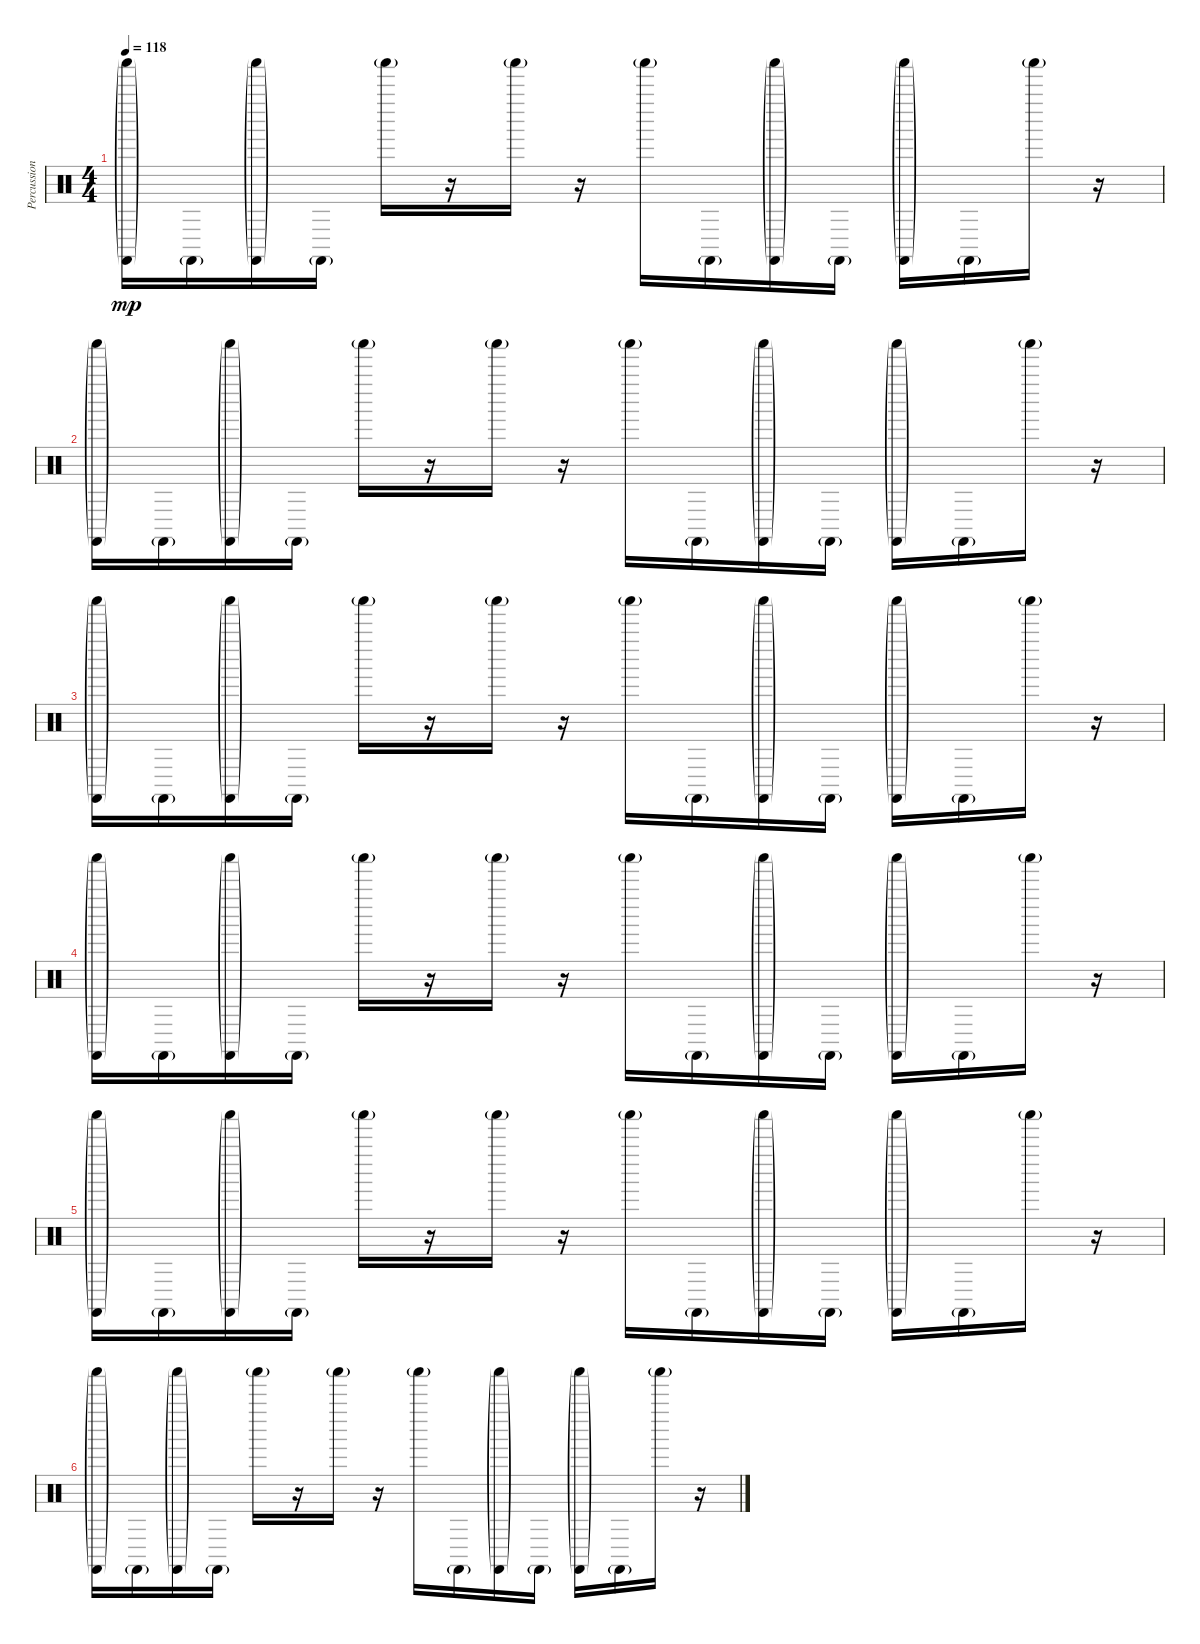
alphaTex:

\track ("Percussion" "Percussion") {instrument percussion}
\staff {score}
\articulation defaults
\ts (4 4)
\tempo 118
\clef neutral
\ks c
("Castanets (hit)"{g} "Shaker (hit)"{g}).16{dy mp} "Castanets (hit)"{g}.16 ("Castanets (hit)"{g} "Shaker (hit)"{g}).16 "Castanets (hit)"{g}.16 "Shaker (hit)"{g}.16 r.16 "Shaker (hit)"{g}.16 r.16 "Shaker (hit)"{g}.16 "Castanets (hit)"{g}.16 ("Castanets (hit)"{g} "Shaker (hit)"{g}).16 "Castanets (hit)"{g}.16 ("Castanets (hit)"{g} "Shaker (hit)"{g}).16 "Castanets (hit)"{g}.16 "Shaker (hit)"{g}.16 r.16 |
("Castanets (hit)"{g} "Shaker (hit)"{g}).16 "Castanets (hit)"{g}.16 ("Castanets (hit)"{g} "Shaker (hit)"{g}).16 "Castanets (hit)"{g}.16 "Shaker (hit)"{g}.16 r.16 "Shaker (hit)"{g}.16 r.16 "Shaker (hit)"{g}.16 "Castanets (hit)"{g}.16 ("Castanets (hit)"{g} "Shaker (hit)"{g}).16 "Castanets (hit)"{g}.16 ("Castanets (hit)"{g} "Shaker (hit)"{g}).16 "Castanets (hit)"{g}.16 "Shaker (hit)"{g}.16 r.16 |
("Castanets (hit)"{g} "Shaker (hit)"{g}).16 "Castanets (hit)"{g}.16 ("Castanets (hit)"{g} "Shaker (hit)"{g}).16 "Castanets (hit)"{g}.16 "Shaker (hit)"{g}.16 r.16 "Shaker (hit)"{g}.16 r.16 "Shaker (hit)"{g}.16 "Castanets (hit)"{g}.16 ("Castanets (hit)"{g} "Shaker (hit)"{g}).16 "Castanets (hit)"{g}.16 ("Castanets (hit)"{g} "Shaker (hit)"{g}).16 "Castanets (hit)"{g}.16 "Shaker (hit)"{g}.16 r.16 |
("Castanets (hit)"{g} "Shaker (hit)"{g}).16 "Castanets (hit)"{g}.16 ("Castanets (hit)"{g} "Shaker (hit)"{g}).16 "Castanets (hit)"{g}.16 "Shaker (hit)"{g}.16 r.16 "Shaker (hit)"{g}.16 r.16 "Shaker (hit)"{g}.16 "Castanets (hit)"{g}.16 ("Castanets (hit)"{g} "Shaker (hit)"{g}).16 "Castanets (hit)"{g}.16 ("Castanets (hit)"{g} "Shaker (hit)"{g}).16 "Castanets (hit)"{g}.16 "Shaker (hit)"{g}.16 r.16 |
("Castanets (hit)"{g} "Shaker (hit)"{g}).16 "Castanets (hit)"{g}.16 ("Castanets (hit)"{g} "Shaker (hit)"{g}).16 "Castanets (hit)"{g}.16 "Shaker (hit)"{g}.16 r.16 "Shaker (hit)"{g}.16 r.16 "Shaker (hit)"{g}.16 "Castanets (hit)"{g}.16 ("Castanets (hit)"{g} "Shaker (hit)"{g}).16 "Castanets (hit)"{g}.16 ("Castanets (hit)"{g} "Shaker (hit)"{g}).16 "Castanets (hit)"{g}.16 "Shaker (hit)"{g}.16 r.16 |
("Castanets (hit)"{g} "Shaker (hit)"{g}).16 "Castanets (hit)"{g}.16 ("Castanets (hit)"{g} "Shaker (hit)"{g}).16 "Castanets (hit)"{g}.16 "Shaker (hit)"{g}.16 r.16 "Shaker (hit)"{g}.16 r.16 "Shaker (hit)"{g}.16 "Castanets (hit)"{g}.16 ("Castanets (hit)"{g} "Shaker (hit)"{g}).16 "Castanets (hit)"{g}.16 ("Castanets (hit)"{g} "Shaker (hit)"{g}).16 "Castanets (hit)"{g}.16 "Shaker (hit)"{g}.16 r.16
